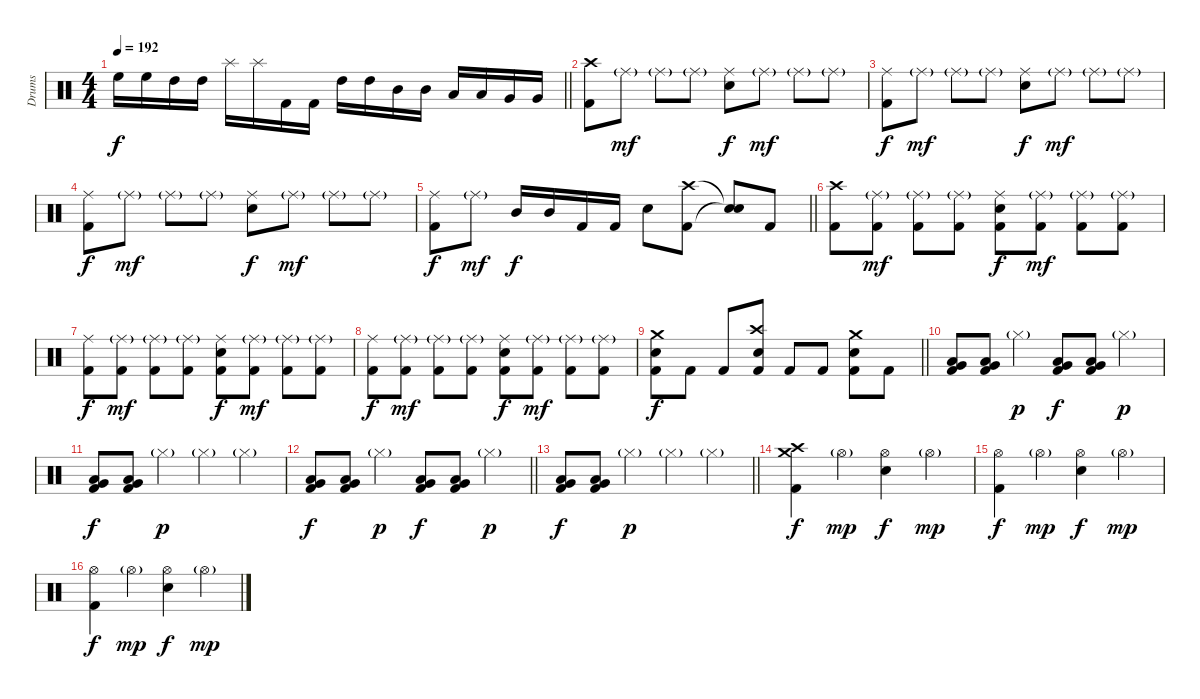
\track ("Drums" "Drums") {instrument percussion}
\staff {score}
\articulation defaults
\ts (4 4)
\tempo 192
\clef neutral
\barLineRight lightlight
\ks c "High Floor Tom (hit)".16{dy f} "High Floor Tom (hit)".16 "High Tom (hit)".16 "High Tom (hit)".16 "Splash (hit)".16 "Splash (hit)".16 "Kick (hit) 2".16 "Kick (hit) 2".16 "High Tom (hit)".16 "High Tom (hit)".16 "Mid Tom (hit)".16 "Mid Tom (hit)".16 "Low Tom (hit)".16 "Low Tom (hit)".16 "Very Low Tom (hit)".16 "Very Low Tom (hit)".16
|
("Crash high (hit)" "Kick (hit) 2").8 "Ride (middle)"{g}.8{dy mf} "Ride (middle)"{g}.8 "Ride (middle)"{g}.8 ("Ride (middle)" "Electric Snare (hit)").8{dy f} "Ride (middle)"{g}.8{dy mf} "Ride (middle)"{g}.8 "Ride (middle)"{g}.8 |
("Ride (middle)" "Kick (hit) 2").8{dy f} "Ride (middle)"{g}.8{dy mf} "Ride (middle)"{g}.8 "Ride (middle)"{g}.8 ("Ride (middle)" "Electric Snare (hit)").8{dy f} "Ride (middle)"{g}.8{dy mf} "Ride (middle)"{g}.8 "Ride (middle)"{g}.8 |
("Ride (middle)" "Kick (hit) 2").8{dy f} "Ride (middle)"{g}.8{dy mf} "Ride (middle)"{g}.8 "Ride (middle)"{g}.8 ("Ride (middle)" "Electric Snare (hit)").8{dy f} "Ride (middle)"{g}.8{dy mf} "Ride (middle)"{g}.8 "Ride (middle)"{g}.8 |
\barLineRight lightlight
("Ride (middle)" "Kick (hit) 2").8{dy f} "Ride (middle)"{g}.8{dy mf} "Mid Tom (hit)".16{dy f} "Mid Tom (hit)".16 "Kick (hit) 2".16 "Kick (hit) 2".16 "Electric Snare (hit)".8 ("Crash high (hit)" "Kick (hit) 2").8 ("Snare (hit)"{t} "Snare (hit)"{t}).8 "Kick (hit) 2".8 |
("Crash high (hit)" "Kick (hit) 2").8 ("Ride (middle)"{g} "Kick (hit) 2").8{dy mf} ("Ride (middle)"{g} "Kick (hit) 2").8 ("Ride (middle)"{g} "Kick (hit) 2").8 ("Ride (middle)" "Electric Snare (hit)" "Kick (hit) 2").8{dy f} ("Ride (middle)"{g} "Kick (hit) 2").8{dy mf} ("Ride (middle)"{g} "Kick (hit) 2").8 ("Ride (middle)"{g} "Kick (hit) 2").8 |
("Ride (middle)" "Kick (hit) 2").8{dy f} ("Ride (middle)"{g} "Kick (hit) 2").8{dy mf} ("Ride (middle)"{g} "Kick (hit) 2").8 ("Ride (middle)"{g} "Kick (hit) 2").8 ("Ride (middle)" "Electric Snare (hit)" "Kick (hit) 2").8{dy f} ("Ride (middle)"{g} "Kick (hit) 2").8{dy mf} ("Ride (middle)"{g} "Kick (hit) 2").8 ("Ride (middle)"{g} "Kick (hit) 2").8 |
("Ride (middle)" "Kick (hit) 2").8{dy f} ("Ride (middle)"{g} "Kick (hit) 2").8{dy mf} ("Ride (middle)"{g} "Kick (hit) 2").8 ("Ride (middle)"{g} "Kick (hit) 2").8 ("Ride (middle)" "Electric Snare (hit)" "Kick (hit) 2").8{dy f} ("Ride (middle)"{g} "Kick (hit) 2").8{dy mf} ("Ride (middle)"{g} "Kick (hit) 2").8 ("Ride (middle)"{g} "Kick (hit) 2").8 |
\barLineRight lightlight
("Crash medium (hit)" "Electric Snare (hit)" "Kick (hit) 2").8{dy f} "Kick (hit) 2".8 "Kick (hit) 2".8 ("Crash high (hit)" "Electric Snare (hit)" "Kick (hit) 2").8 "Kick (hit) 2".8 "Kick (hit) 2".8 ("Crash medium (hit)" "Electric Snare (hit)" "Kick (hit) 2").8 "Kick (hit) 2".8 |
("Very Low Tom (hit)" "Low Floor Tom (hit)" "Kick (hit) 2").8 ("Very Low Tom (hit)" "Low Floor Tom (hit)" "Kick (hit) 2").8 "Hi-Hat (closed)"{g}.4{dy p} ("Very Low Tom (hit)" "Low Floor Tom (hit)" "Kick (hit) 2").8{dy f} ("Very Low Tom (hit)" "Low Floor Tom (hit)" "Kick (hit) 2").8 "Hi-Hat (closed)"{g}.4{dy p} |
("Very Low Tom (hit)" "Low Floor Tom (hit)" "Kick (hit) 2").8{dy f} ("Very Low Tom (hit)" "Low Floor Tom (hit)" "Kick (hit) 2").8 "Hi-Hat (closed)"{g}.4{dy p} "Hi-Hat (closed)"{g}.4 "Hi-Hat (closed)"{g}.4 |
\barLineRight lightlight
("Very Low Tom (hit)" "Low Floor Tom (hit)" "Kick (hit) 2").8{dy f} ("Very Low Tom (hit)" "Low Floor Tom (hit)" "Kick (hit) 2").8 "Hi-Hat (closed)"{g}.4{dy p} ("Very Low Tom (hit)" "Low Floor Tom (hit)" "Kick (hit) 2").8{dy f} ("Very Low Tom (hit)" "Low Floor Tom (hit)" "Kick (hit) 2").8 "Hi-Hat (closed)"{g}.4{dy p} |
\barLineRight lightlight
("Very Low Tom (hit)" "Low Floor Tom (hit)" "Kick (hit) 2").8{dy f} ("Very Low Tom (hit)" "Low Floor Tom (hit)" "Kick (hit) 2").8 "Hi-Hat (closed)"{g}.4{dy p} "Hi-Hat (closed)"{g}.4 "Hi-Hat (closed)"{g}.4 |
("Crash high (hit)" "Crash medium (hit)" "Kick (hit) 2").4{dy f} "Hi-Hat (open)"{g}.4{dy mp} ("Hi-Hat (open)" "Electric Snare (hit)").4{dy f} "Hi-Hat (open)"{g}.4{dy mp} |
("Hi-Hat (open)" "Kick (hit) 2").4{dy f} "Hi-Hat (open)"{g}.4{dy mp} ("Hi-Hat (open)" "Electric Snare (hit)").4{dy f} "Hi-Hat (open)"{g}.4{dy mp} |
("Hi-Hat (open)" "Kick (hit) 2").4{dy f} "Hi-Hat (open)"{g}.4{dy mp} ("Hi-Hat (open)" "Electric Snare (hit)").4{dy f} "Hi-Hat (open)"{g}.4{dy mp}
